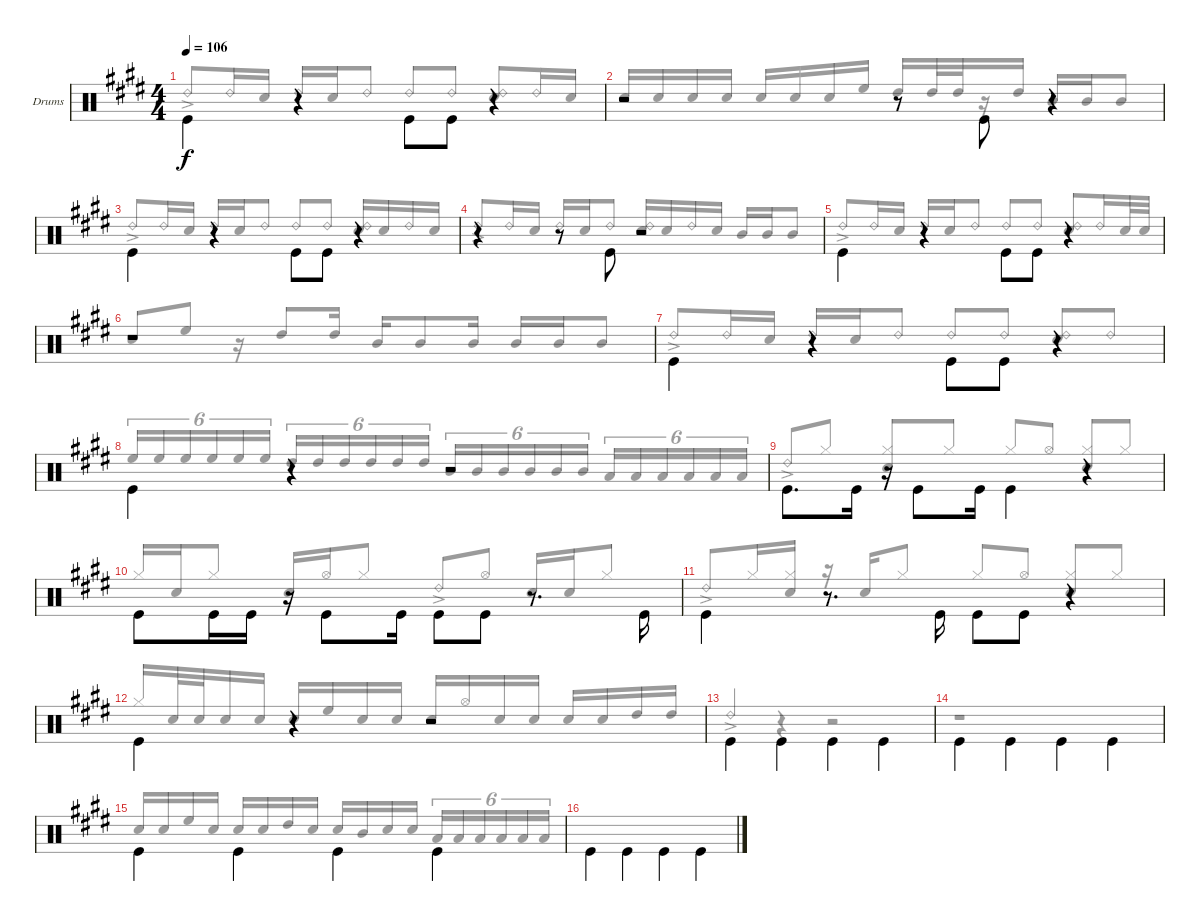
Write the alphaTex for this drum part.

\bracketExtendMode groupsimilarinstruments
\firstSystemTrackNameOrientation horizontal
\otherSystemsTrackNameOrientation horizontal
\track ("Drums" "Drums") {instrument percussion}
\staff {score}
\articulation defaults
\voice
\ts (4 4)
\tempo 106
\clef neutral
\scale
1.02648
\ks e "Kick (hit)".4{dy f beam invert beam split}
r.4{beam split} "Kick (hit)".8{beam invert} "Kick (hit)".8 r.4 |
\scale
0.973518 r.2 r.8 "Kick (hit)".8{beam invert} r.4 |
\scale
1.02648 "Kick (hit)".4{beam invert beam split} r.4{beam split} "Kick (hit)".8{beam invert} "Kick (hit)".8 r.4 |
\scale
0.973518 r.4 r.8 "Kick (hit)".8{beam invert} r.2 |
\scale
1.02648 "Kick (hit)".4{beam invert beam split} r.4{beam split} "Kick (hit)".8{beam invert} "Kick (hit)".8 r.4 |
\scale
0.973518 r.1 |
\scale
1.02648 "Kick (hit)".4{beam invert beam split} r.4{beam split} "Kick (hit)".8{beam invert} "Kick (hit)".8 r.4 |
\scale
0.973518 "Kick (hit)".4{beam invert} r.4 r.2 |
\scale
1.02648 "Kick (hit)".8{d beam invert} "Kick (hit)".16 r.16 "Kick (hit)".8{beam invert} "Kick (hit)".16 "Kick (hit)".4{beam invert} r.4 |
\scale
0.973518 "Kick (hit)".8{beam invert} "Kick (hit)".16{beam invert} "Kick (hit)".16{beam invert} r.16 "Kick (hit)".8{beam invert} "Kick (hit)".16 "Kick (hit)".8{beam invert} "Kick (hit)".8 r.8{d} "Kick (hit)".16{beam invert} |
\scale
1.02648 "Kick (hit)".4{beam invert} r.8{d} "Kick (hit)".16{beam invert} "Kick (hit)".8{beam invert} "Kick (hit)".8 r.4 |
\scale
0.973518 "Kick (hit)".4{beam invert} r.4 r.2 |
\scale
1.02648 "Kick (hit)".4{beam invert} "Kick (hit)".4{beam invert} "Kick (hit)".4{beam invert} "Kick (hit)".4{beam invert} |
\scale
0.973518 "Kick (hit)".4{beam invert} "Kick (hit)".4{beam invert} "Kick (hit)".4{beam invert} "Kick (hit)".4{beam invert} |
\scale
1.02648 "Kick (hit)".4{beam invert} "Kick (hit)".4{beam invert} "Kick (hit)".4{beam invert} "Kick (hit)".4{beam invert} |
\scale
0.973518 "Kick (hit)".4{beam invert} "Kick (hit)".4{beam invert} "Kick (hit)".4{beam invert} "Kick (hit)".4{beam invert}
\voice
\clef neutral
\ottava regular
\simile none
\scale
1.02648
\ks e "Ride (bell) 2"{ac}.8{dy f beam invert} "Ride (bell) 2".16 "Snare (hit) 2".16 "Ride (bell) 2".16{beam invert} "Snare (hit) 2".16 "Ride (bell) 2".8 "Ride (bell) 2".8{beam invert} "Ride (bell) 2".8
("Ride (bell) 2" "Snare (hit) 2").8{beam invert} "Ride (bell) 2".16 "Snare (hit) 2".16 |
\scale
0.973518 "Snare (hit) 2".16{beam invert} "Snare (hit) 2".16 "Snare (hit) 2".16 "Snare (hit) 2".16 "Snare (hit) 2".16{beam invert} "Snare (hit) 2".16 "Snare (hit) 2".16 "High Floor Tom (hit)".16 "High Tom (hit)".16{beam invert} "High Tom (hit)".32{beam invert} "High Tom (hit)".32{beam invert} r.16 "High Tom (hit)".16{beam invert} "Mid Tom (hit)".16{beam invert} "Mid Tom (hit)".16{beam invert} "Mid Tom (hit)".8{beam invert} |
\scale
1.02648 "Ride (bell) 2"{ac}.8{beam invert} "Ride (bell) 2".16 "Snare (hit) 2".16 "Ride (bell) 2".16{beam invert} "Snare (hit) 2".16 "Ride (bell) 2".8 "Ride (bell) 2".8{beam invert} "Ride (bell) 2".8 ("Ride (bell) 2" "Snare (hit) 2").16{beam invert} "Snare (hit) 2".16 "Ride (bell) 2".16 "Snare (hit) 2".16 |
\scale
0.973518 "Ride (bell) 2"{ac}.8{beam invert} "Ride (bell) 2".16 "Snare (hit) 2".16 "Ride (bell) 2".16{beam invert} "Snare (hit) 2".16 "Ride (bell) 2".8 ("Ride (bell) 2" "Snare (hit) 2").16{beam invert} "Snare (hit) 2".16 "Ride (bell) 2".16 "Snare (hit) 2".16 "Mid Tom (hit)".16{beam invert} "Mid Tom (hit)".16{beam invert} "Mid Tom (hit)".8{beam invert} |
\scale
1.02648 "Ride (bell) 2"{ac}.8{beam invert} "Ride (bell) 2".16 "Snare (hit) 2".16 "Ride (bell) 2".16{beam invert} "Snare (hit) 2".16 "Ride (bell) 2".8 "Ride (bell) 2".8{beam invert} "Ride (bell) 2".8 ("Ride (bell) 2" "Snare (hit) 2").8{beam invert} "Ride (bell) 2".16 "Snare (hit) 2".32 "Snare (hit) 2".32 |
\scale
0.973518 "Snare (hit) 2".8{beam invert} "High Floor Tom (hit)".8 r.16 "High Tom (hit)".8{beam invert} "High Tom (hit)".16 "Mid Tom (hit)".16{beam invert} "Mid Tom (hit)".8 "Mid Tom (hit)".16 "Mid Tom (hit)".16{beam invert} "Mid Tom (hit)".16 "Mid Tom (hit)".8 |
\scale
1.02648 "Ride (bell) 2"{ac}.8{beam invert} "Ride (bell) 2".16 "Snare (hit) 2".16 "Ride (bell) 2".16{beam invert} "Snare (hit) 2".16 "Ride (bell) 2".8 "Ride (bell) 2".8{beam invert} "Ride (bell) 2".8 ("Ride (bell) 2" "Snare (hit) 2").8{beam invert} "Ride (bell) 2".8 |
\scale
0.973518 "High Floor Tom (hit)".16{tu (6 4) beam invert} "High Floor Tom (hit)".16{tu (6 4)} "High Floor Tom (hit)".16{tu (6 4)} "High Floor Tom (hit)".16{tu (6 4)} "High Floor Tom (hit)".16{tu (6 4)} "High Floor Tom (hit)".16{tu (6 4)} "High Tom (hit)".16{tu (6 4) beam invert} "High Tom (hit)".16{tu (6 4)} "High Tom (hit)".16{tu (6 4)} "High Tom (hit)".16{tu (6 4)} "High Tom (hit)".16{tu (6 4)} "High Tom (hit)".16{tu (6 4)} "Mid Tom (hit)".16{tu (6 4) beam invert} "Mid Tom (hit)".16{tu (6 4)} "Mid Tom (hit)".16{tu (6 4)} "Mid Tom (hit)".16{tu (6 4)} "Mid Tom (hit)".16{tu (6 4)} "Mid Tom (hit)".16{tu (6 4)} "Low Tom (hit)".16{tu (6 4) beam invert} "Low Tom (hit)".16{tu (6 4)} "Low Tom (hit)".16{tu (6 4)} "Low Tom (hit)".16{tu (6 4)} "Low Tom (hit)".16{tu (6 4)} "Low Tom (hit)".16{tu (6 4)} |
\scale
1.02648 "Ride (bell) 2"{ac}.8{beam invert} "Hi-Hat (closed)".8 ("Hi-Hat (closed)" "Snare (hit) 2").8{beam invert} "Hi-Hat (closed)".8 "Hi-Hat (closed)".8{beam invert} "Hi-Hat (open)".8 ("Hi-Hat (closed)" "Snare (hit) 2").8{beam invert} "Hi-Hat (closed)".8 |
\scale
0.973518 "Hi-Hat (closed)".16{beam invert} "Snare (hit) 2".16 "Hi-Hat (closed)".8 "Snare (hit) 2".16{beam invert} "Hi-Hat (open)".16 "Hi-Hat (closed)".8 "Ride (bell) 2"{ac}.8{beam invert} "Hi-Hat (open)".8 "Snare (hit) 2".16{beam invert} "Snare (hit) 2".16 "Hi-Hat (closed)".8 |
\scale
1.02648 "Ride (bell) 2"{ac}.8{beam invert} "Hi-Hat (closed)".16 ("Hi-Hat (closed)" "Snare (hit) 2").16 r.16 "Snare (hit) 2".16{beam invert} "Hi-Hat (closed)".8 "Hi-Hat (closed)".8{beam invert} "Hi-Hat (open)".8 ("Hi-Hat (closed)" "Snare (hit) 2").8{beam invert} "Hi-Hat (closed)".8 |
\scale
0.973518 "Hi-Hat (closed)".16{beam invert} "Snare (hit) 2".32 "Snare (hit) 2".32 "Snare (hit) 2".16 "Snare (hit) 2".16 "Snare (hit) 2".16{beam invert} "High Floor Tom (hit)".16 "Snare (hit) 2".16 "Snare (hit) 2".16 "Snare (hit) 2".16{beam invert} "Hi-Hat (open)".16 "Snare (hit) 2".16 "Snare (hit) 2".16 "Snare (hit) 2".16{beam invert} "Snare (hit) 2".16 "High Tom (hit)".16 "High Tom (hit)".16 |
\scale
1.02648 "Ride (bell) 2"{ac}.4{beam invert} r.4 r.2 |
\scale
0.973518 r.1 |
\scale
1.02648 "Snare (hit) 2".16{beam invert} "Snare (hit) 2".16 "High Floor Tom (hit)".16 "Snare (hit) 2".16 "Snare (hit) 2".16{beam invert} "Snare (hit) 2".16 "High Tom (hit)".16 "Snare (hit) 2".16 "Snare (hit) 2".16{beam invert} "Mid Tom (hit)".16 "Snare (hit) 2".16 "Snare (hit) 2".16 "Low Tom (hit)".16{tu (6 4) beam invert} "Low Tom (hit)".16{tu (6 4)} "Low Tom (hit)".16{tu (6 4)} "Low Tom (hit)".16{tu (6 4)} "Low Tom (hit)".16{tu (6 4)} "Low Tom (hit)".16{tu (6 4)} |
\scale
0.973518
